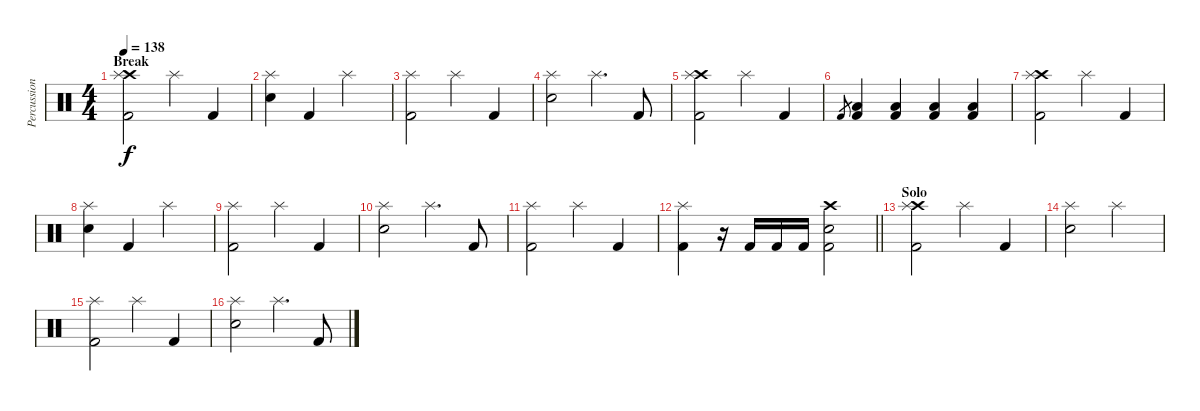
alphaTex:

\track ("Percussions" "Percussion") {instrument percussion}
\staff {score}
\articulation defaults
\ts (4 4)
\section ("" "Break")
\tempo 138
\clef neutral
\ks c
("Crash high (hit)" "Splash (hit)" "Kick (hit) 2").2{dy f} "Splash (hit)".4 "Kick (hit) 2".4 |
("Splash (hit)" "Snare (hit) 2").4 "Kick (hit) 2".4 "Splash (hit)".2 |
("Splash (hit)" "Kick (hit) 2").2 "Splash (hit)".4 "Kick (hit) 2".4 |
("Splash (hit)" "Snare (hit) 2").2 "Splash (hit)".4{d} "Kick (hit) 2".8 |
("Crash high (hit)" "Splash (hit)" "Kick (hit) 2").2 "Splash (hit)".4 "Kick (hit) 2".4 |
"Kick (hit) 2".8{gr} ("Low Tom (hit)" "Kick (hit) 2").4 ("Low Tom (hit)" "Kick (hit) 2").4 ("Low Tom (hit)" "Kick (hit) 2").4 ("Low Tom (hit)" "Kick (hit) 2").4 |
("Crash high (hit)" "Splash (hit)" "Kick (hit) 2").2 "Splash (hit)".4 "Kick (hit) 2".4 |
("Splash (hit)" "Snare (hit) 2").4 "Kick (hit) 2".4 "Splash (hit)".2 |
("Splash (hit)" "Kick (hit) 2").2 "Splash (hit)".4 "Kick (hit) 2".4 |
("Splash (hit)" "Snare (hit) 2").2 "Splash (hit)".4{d} "Kick (hit) 2".8 |
("Splash (hit)" "Kick (hit) 2").2 "Splash (hit)".4 "Kick (hit) 2".4 |
\barLineRight lightlight
("Splash (hit)" "Kick (hit) 2").4 r.16 "Kick (hit) 2".16 "Kick (hit) 2".16 "Kick (hit) 2".16 ("Crash high (hit)" "Snare (hit) 2" "Kick (hit) 2").2 |
\section ("" "Solo")
("Crash high (hit)" "Splash (hit)" "Kick (hit) 2").2 "Splash (hit)".4 "Kick (hit) 2".4 |
("Splash (hit)" "Snare (hit) 2").2 "Splash (hit)".2 |
("Splash (hit)" "Kick (hit) 2").2 "Splash (hit)".4 "Kick (hit) 2".4 |
("Splash (hit)" "Snare (hit) 2").2 "Splash (hit)".4{d} "Kick (hit) 2".8
